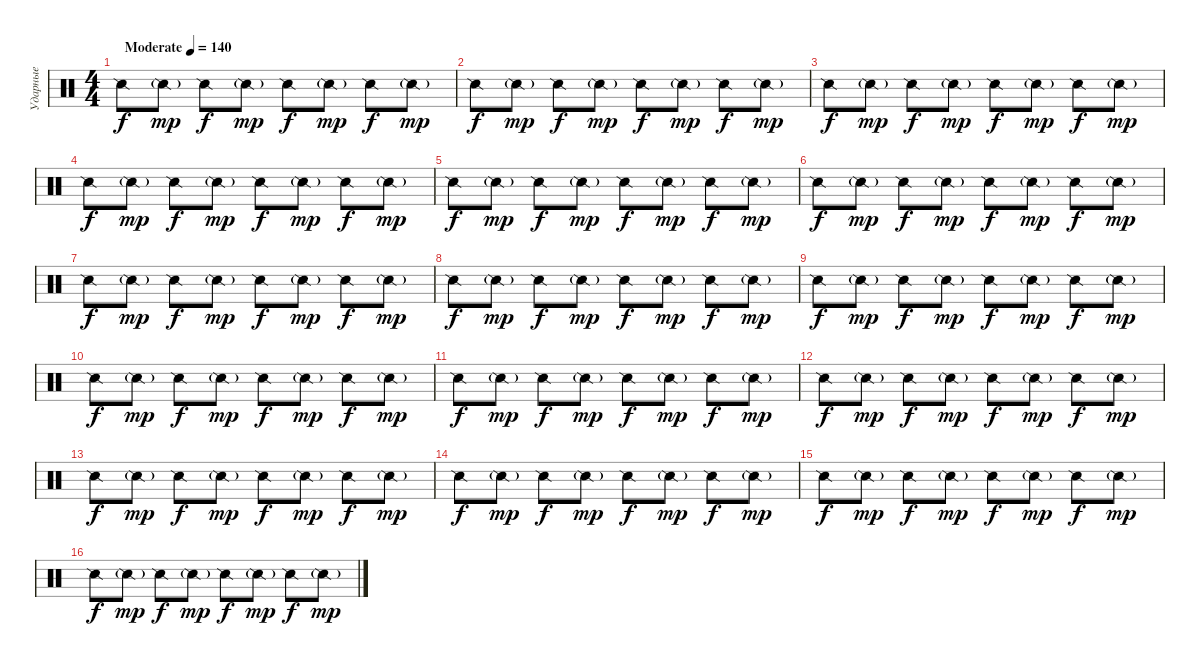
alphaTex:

\track ("Ударные" "Ударные") {instrument percussion}
\staff {score}
\articulation defaults
\ts (4 4)
\tempo (140 "Moderate")
\clef neutral
\ks c "Snare (side stick) 2".8{dy f} "Snare (side stick) 2"{g}.8{dy mp} "Snare (side stick) 2".8{dy f} "Snare (side stick) 2"{g}.8{dy mp} "Snare (side stick) 2".8{dy f} "Snare (side stick) 2"{g}.8{dy mp} "Snare (side stick) 2".8{dy f} "Snare (side stick) 2"{g}.8{dy mp}
|
"Snare (side stick) 2".8{dy f} "Snare (side stick) 2"{g}.8{dy mp} "Snare (side stick) 2".8{dy f} "Snare (side stick) 2"{g}.8{dy mp} "Snare (side stick) 2".8{dy f} "Snare (side stick) 2"{g}.8{dy mp} "Snare (side stick) 2".8{dy f} "Snare (side stick) 2"{g}.8{dy mp} |
"Snare (side stick) 2".8{dy f} "Snare (side stick) 2"{g}.8{dy mp} "Snare (side stick) 2".8{dy f} "Snare (side stick) 2"{g}.8{dy mp} "Snare (side stick) 2".8{dy f} "Snare (side stick) 2"{g}.8{dy mp} "Snare (side stick) 2".8{dy f} "Snare (side stick) 2"{g}.8{dy mp} |
"Snare (side stick) 2".8{dy f} "Snare (side stick) 2"{g}.8{dy mp} "Snare (side stick) 2".8{dy f} "Snare (side stick) 2"{g}.8{dy mp} "Snare (side stick) 2".8{dy f} "Snare (side stick) 2"{g}.8{dy mp} "Snare (side stick) 2".8{dy f} "Snare (side stick) 2"{g}.8{dy mp} |
"Snare (side stick) 2".8{dy f} "Snare (side stick) 2"{g}.8{dy mp} "Snare (side stick) 2".8{dy f} "Snare (side stick) 2"{g}.8{dy mp} "Snare (side stick) 2".8{dy f} "Snare (side stick) 2"{g}.8{dy mp} "Snare (side stick) 2".8{dy f} "Snare (side stick) 2"{g}.8{dy mp} |
"Snare (side stick) 2".8{dy f} "Snare (side stick) 2"{g}.8{dy mp} "Snare (side stick) 2".8{dy f} "Snare (side stick) 2"{g}.8{dy mp} "Snare (side stick) 2".8{dy f} "Snare (side stick) 2"{g}.8{dy mp} "Snare (side stick) 2".8{dy f} "Snare (side stick) 2"{g}.8{dy mp} |
"Snare (side stick) 2".8{dy f} "Snare (side stick) 2"{g}.8{dy mp} "Snare (side stick) 2".8{dy f} "Snare (side stick) 2"{g}.8{dy mp} "Snare (side stick) 2".8{dy f} "Snare (side stick) 2"{g}.8{dy mp} "Snare (side stick) 2".8{dy f} "Snare (side stick) 2"{g}.8{dy mp} |
"Snare (side stick) 2".8{dy f} "Snare (side stick) 2"{g}.8{dy mp} "Snare (side stick) 2".8{dy f} "Snare (side stick) 2"{g}.8{dy mp} "Snare (side stick) 2".8{dy f} "Snare (side stick) 2"{g}.8{dy mp} "Snare (side stick) 2".8{dy f} "Snare (side stick) 2"{g}.8{dy mp} |
"Snare (side stick) 2".8{dy f} "Snare (side stick) 2"{g}.8{dy mp} "Snare (side stick) 2".8{dy f} "Snare (side stick) 2"{g}.8{dy mp} "Snare (side stick) 2".8{dy f} "Snare (side stick) 2"{g}.8{dy mp} "Snare (side stick) 2".8{dy f} "Snare (side stick) 2"{g}.8{dy mp} |
"Snare (side stick) 2".8{dy f} "Snare (side stick) 2"{g}.8{dy mp} "Snare (side stick) 2".8{dy f} "Snare (side stick) 2"{g}.8{dy mp} "Snare (side stick) 2".8{dy f} "Snare (side stick) 2"{g}.8{dy mp} "Snare (side stick) 2".8{dy f} "Snare (side stick) 2"{g}.8{dy mp} |
"Snare (side stick) 2".8{dy f} "Snare (side stick) 2"{g}.8{dy mp} "Snare (side stick) 2".8{dy f} "Snare (side stick) 2"{g}.8{dy mp} "Snare (side stick) 2".8{dy f} "Snare (side stick) 2"{g}.8{dy mp} "Snare (side stick) 2".8{dy f} "Snare (side stick) 2"{g}.8{dy mp} |
"Snare (side stick) 2".8{dy f} "Snare (side stick) 2"{g}.8{dy mp} "Snare (side stick) 2".8{dy f} "Snare (side stick) 2"{g}.8{dy mp} "Snare (side stick) 2".8{dy f} "Snare (side stick) 2"{g}.8{dy mp} "Snare (side stick) 2".8{dy f} "Snare (side stick) 2"{g}.8{dy mp} |
"Snare (side stick) 2".8{dy f} "Snare (side stick) 2"{g}.8{dy mp} "Snare (side stick) 2".8{dy f} "Snare (side stick) 2"{g}.8{dy mp} "Snare (side stick) 2".8{dy f} "Snare (side stick) 2"{g}.8{dy mp} "Snare (side stick) 2".8{dy f} "Snare (side stick) 2"{g}.8{dy mp} |
"Snare (side stick) 2".8{dy f} "Snare (side stick) 2"{g}.8{dy mp} "Snare (side stick) 2".8{dy f} "Snare (side stick) 2"{g}.8{dy mp} "Snare (side stick) 2".8{dy f} "Snare (side stick) 2"{g}.8{dy mp} "Snare (side stick) 2".8{dy f} "Snare (side stick) 2"{g}.8{dy mp} |
"Snare (side stick) 2".8{dy f} "Snare (side stick) 2"{g}.8{dy mp} "Snare (side stick) 2".8{dy f} "Snare (side stick) 2"{g}.8{dy mp} "Snare (side stick) 2".8{dy f} "Snare (side stick) 2"{g}.8{dy mp} "Snare (side stick) 2".8{dy f} "Snare (side stick) 2"{g}.8{dy mp} |
"Snare (side stick) 2".8{dy f} "Snare (side stick) 2"{g}.8{dy mp} "Snare (side stick) 2".8{dy f} "Snare (side stick) 2"{g}.8{dy mp} "Snare (side stick) 2".8{dy f} "Snare (side stick) 2"{g}.8{dy mp} "Snare (side stick) 2".8{dy f} "Snare (side stick) 2"{g}.8{dy mp}
